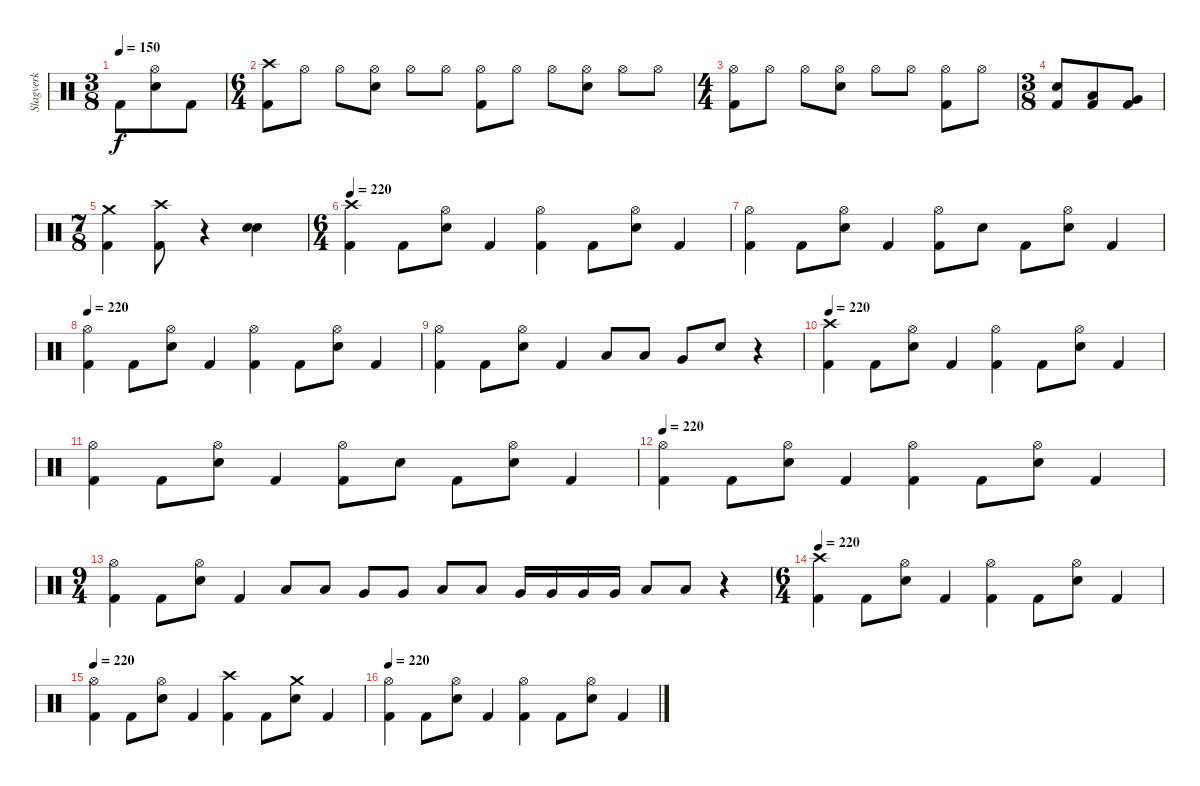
\track ("Slagverk" "Slagverk") {instrument percussion}
\staff {score}
\articulation defaults
\ts (3 8)
\tempo 150
\clef neutral
\ks c "Kick (hit) 2".8{dy f}
("Hi-Hat (open)" "Electric Snare (hit)").8 "Kick (hit) 2".8 |
\ts (6 4)
("Crash high (hit)" "Kick (hit) 2").8 "Hi-Hat (open)".8 "Hi-Hat (open)".8 ("Hi-Hat (open)" "Electric Snare (hit)").8 "Hi-Hat (open)".8 "Hi-Hat (open)".8 ("Hi-Hat (open)" "Kick (hit) 2").8 "Hi-Hat (open)".8 "Hi-Hat (open)".8 ("Hi-Hat (open)" "Electric Snare (hit)").8 "Hi-Hat (open)".8 "Hi-Hat (open)".8 |
\ts (4 4)
("Hi-Hat (open)" "Kick (hit) 2").8 "Hi-Hat (open)".8 "Hi-Hat (open)".8 ("Hi-Hat (open)" "Electric Snare (hit)").8 "Hi-Hat (open)".8 "Hi-Hat (open)".8 ("Hi-Hat (open)" "Kick (hit) 2").8 "Hi-Hat (open)".8 |
\ts (3 8)
("Electric Snare (hit)" "Kick (hit) 2").8 ("Low Tom (hit)" "Kick (hit) 2").8 ("Very Low Tom (hit)" "Kick (hit) 2").8 |
\ts (7 8)
("Crash medium (hit)" "Kick (hit) 2").4 ("Crash high (hit)" "Kick (hit) 2").8 r.4 ("Snare (hit) 2" "Electric Snare (hit)").4 |
\ts (6 4)
\tempo 220
("Crash high (hit)" "Kick (hit) 2").4 "Kick (hit) 2".8 ("Hi-Hat (open)" "Electric Snare (hit)").8 "Kick (hit) 2".4 ("Hi-Hat (open)" "Kick (hit) 2").4 "Kick (hit) 2".8 ("Hi-Hat (open)" "Electric Snare (hit)").8 "Kick (hit) 2".4 |
("Hi-Hat (open)" "Kick (hit) 2").4 "Kick (hit) 2".8 ("Hi-Hat (open)" "Electric Snare (hit)").8 "Kick (hit) 2".4 ("Hi-Hat (open)" "Kick (hit) 2").8 "Electric Snare (hit)".8 "Kick (hit) 2".8 ("Hi-Hat (open)" "Electric Snare (hit)").8 "Kick (hit) 2".4 |
\tempo 220
("Hi-Hat (open)" "Kick (hit) 2").4 "Kick (hit) 2".8 ("Hi-Hat (open)" "Electric Snare (hit)").8 "Kick (hit) 2".4 ("Hi-Hat (open)" "Kick (hit) 2").4 "Kick (hit) 2".8 ("Hi-Hat (open)" "Electric Snare (hit)").8 "Kick (hit) 2".4 |
("Hi-Hat (open)" "Kick (hit) 2").4 "Kick (hit) 2".8 ("Hi-Hat (open)" "Electric Snare (hit)").8 "Kick (hit) 2".4 "Low Tom (hit)".8 "Low Tom (hit)".8 "Very Low Tom (hit)".8 "Electric Snare (hit)".8 r.4 |
\tempo 220
("Crash high (hit)" "Kick (hit) 2").4 "Kick (hit) 2".8 ("Hi-Hat (open)" "Electric Snare (hit)").8 "Kick (hit) 2".4 ("Hi-Hat (open)" "Kick (hit) 2").4 "Kick (hit) 2".8 ("Hi-Hat (open)" "Electric Snare (hit)").8 "Kick (hit) 2".4 |
("Hi-Hat (open)" "Kick (hit) 2").4 "Kick (hit) 2".8 ("Hi-Hat (open)" "Electric Snare (hit)").8 "Kick (hit) 2".4 ("Hi-Hat (open)" "Kick (hit) 2").8 "Electric Snare (hit)".8 "Kick (hit) 2".8 ("Hi-Hat (open)" "Electric Snare (hit)").8 "Kick (hit) 2".4 |
\tempo 220
("Hi-Hat (open)" "Kick (hit) 2").4 "Kick (hit) 2".8 ("Hi-Hat (open)" "Electric Snare (hit)").8 "Kick (hit) 2".4 ("Hi-Hat (open)" "Kick (hit) 2").4 "Kick (hit) 2".8 ("Hi-Hat (open)" "Electric Snare (hit)").8 "Kick (hit) 2".4 |
\ts (9 4)
("Hi-Hat (open)" "Kick (hit) 2").4 "Kick (hit) 2".8 ("Hi-Hat (open)" "Electric Snare (hit)").8 "Kick (hit) 2".4 "Low Tom (hit)".8 "Low Tom (hit)".8 "Very Low Tom (hit)".8 "Very Low Tom (hit)".8 "Low Floor Tom (hit)".8 "Low Floor Tom (hit)".8 "Very Low Tom (hit)".16 "Very Low Tom (hit)".16 "Very Low Tom (hit)".16 "Very Low Tom (hit)".16 "Low Floor Tom (hit)".8 "Low Floor Tom (hit)".8 r.4 |
\ts (6 4)
\tempo 220
("Crash high (hit)" "Kick (hit) 2").4 "Kick (hit) 2".8 ("Hi-Hat (open)" "Electric Snare (hit)").8 "Kick (hit) 2".4 ("Hi-Hat (open)" "Kick (hit) 2").4 "Kick (hit) 2".8 ("Hi-Hat (open)" "Electric Snare (hit)").8 "Kick (hit) 2".4 |
\tempo 220
("Hi-Hat (open)" "Kick (hit) 2").4 "Kick (hit) 2".8 ("Hi-Hat (open)" "Electric Snare (hit)").8 "Kick (hit) 2".4 ("Crash high (hit)" "Kick (hit) 2").4 "Kick (hit) 2".8 ("Crash medium (hit)" "Electric Snare (hit)").8 "Kick (hit) 2".4 |
\tempo 220
("Hi-Hat (open)" "Kick (hit) 2").4 "Kick (hit) 2".8 ("Hi-Hat (open)" "Electric Snare (hit)").8 "Kick (hit) 2".4 ("Hi-Hat (open)" "Kick (hit) 2").4 "Kick (hit) 2".8 ("Hi-Hat (open)" "Electric Snare (hit)").8 "Kick (hit) 2".4
